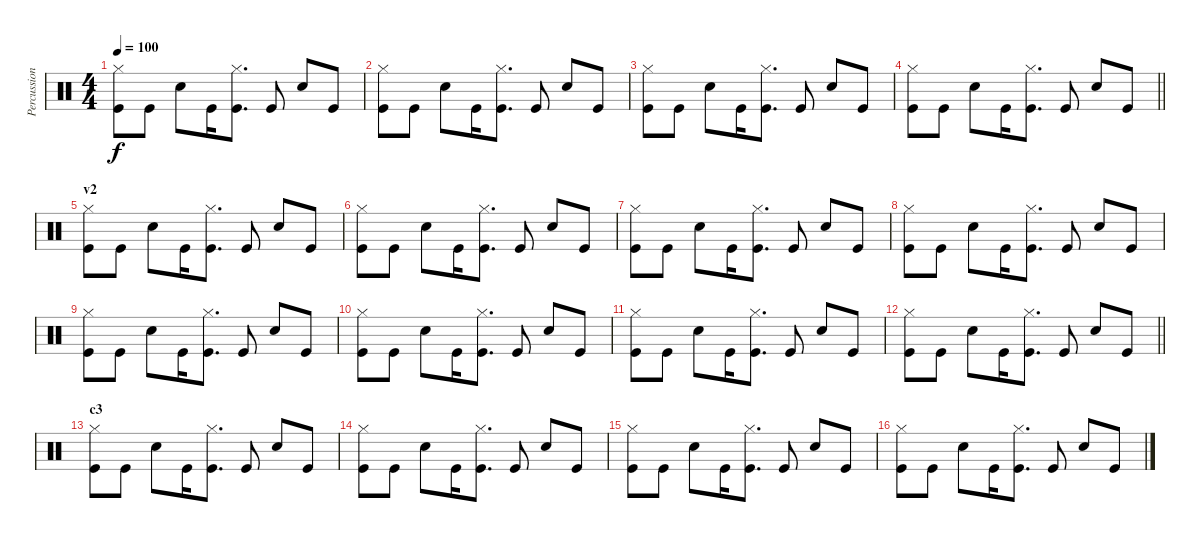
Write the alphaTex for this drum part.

\track ("Percussion" "Percussion") {instrument percussion}
\staff {score}
\articulation defaults
\ts (4 4)
\tempo 100
\clef neutral
\ks c
("Hi-Hat (closed)" "Kick (hit)").8{dy f} "Kick (hit)".8 "Snare (hit) 2".8 "Kick (hit)".16 ("Hi-Hat (closed)" "Kick (hit)").8{d} "Kick (hit)".8 "Snare (hit) 2".8 "Kick (hit)".8 |
("Hi-Hat (closed)" "Kick (hit)").8 "Kick (hit)".8 "Snare (hit) 2".8 "Kick (hit)".16 ("Hi-Hat (closed)" "Kick (hit)").8{d} "Kick (hit)".8 "Snare (hit) 2".8 "Kick (hit)".8 |
("Hi-Hat (closed)" "Kick (hit)").8 "Kick (hit)".8 "Snare (hit) 2".8 "Kick (hit)".16 ("Hi-Hat (closed)" "Kick (hit)").8{d} "Kick (hit)".8 "Snare (hit) 2".8 "Kick (hit)".8 |
\barLineRight lightlight
("Hi-Hat (closed)" "Kick (hit)").8 "Kick (hit)".8 "Snare (hit) 2".8 "Kick (hit)".16 ("Hi-Hat (closed)" "Kick (hit)").8{d} "Kick (hit)".8 "Snare (hit) 2".8 "Kick (hit)".8 |
\section ("" "v2")
("Hi-Hat (closed)" "Kick (hit)").8 "Kick (hit)".8 "Snare (hit) 2".8 "Kick (hit)".16 ("Hi-Hat (closed)" "Kick (hit)").8{d} "Kick (hit)".8 "Snare (hit) 2".8 "Kick (hit)".8 |
("Hi-Hat (closed)" "Kick (hit)").8 "Kick (hit)".8 "Snare (hit) 2".8 "Kick (hit)".16 ("Hi-Hat (closed)" "Kick (hit)").8{d} "Kick (hit)".8 "Snare (hit) 2".8 "Kick (hit)".8 |
("Hi-Hat (closed)" "Kick (hit)").8 "Kick (hit)".8 "Snare (hit) 2".8 "Kick (hit)".16 ("Hi-Hat (closed)" "Kick (hit)").8{d} "Kick (hit)".8 "Snare (hit) 2".8 "Kick (hit)".8 |
("Hi-Hat (closed)" "Kick (hit)").8 "Kick (hit)".8 "Snare (hit) 2".8 "Kick (hit)".16 ("Hi-Hat (closed)" "Kick (hit)").8{d} "Kick (hit)".8 "Snare (hit) 2".8 "Kick (hit)".8 |
("Hi-Hat (closed)" "Kick (hit)").8 "Kick (hit)".8 "Snare (hit) 2".8 "Kick (hit)".16 ("Hi-Hat (closed)" "Kick (hit)").8{d} "Kick (hit)".8 "Snare (hit) 2".8 "Kick (hit)".8 |
("Hi-Hat (closed)" "Kick (hit)").8 "Kick (hit)".8 "Snare (hit) 2".8 "Kick (hit)".16 ("Hi-Hat (closed)" "Kick (hit)").8{d} "Kick (hit)".8 "Snare (hit) 2".8 "Kick (hit)".8 |
("Hi-Hat (closed)" "Kick (hit)").8 "Kick (hit)".8 "Snare (hit) 2".8 "Kick (hit)".16 ("Hi-Hat (closed)" "Kick (hit)").8{d} "Kick (hit)".8 "Snare (hit) 2".8 "Kick (hit)".8 |
\barLineRight lightlight
("Hi-Hat (closed)" "Kick (hit)").8 "Kick (hit)".8 "Snare (hit) 2".8 "Kick (hit)".16 ("Hi-Hat (closed)" "Kick (hit)").8{d} "Kick (hit)".8 "Snare (hit) 2".8 "Kick (hit)".8 |
\section ("" "c3")
("Hi-Hat (closed)" "Kick (hit)").8 "Kick (hit)".8 "Snare (hit) 2".8 "Kick (hit)".16 ("Hi-Hat (closed)" "Kick (hit)").8{d} "Kick (hit)".8 "Snare (hit) 2".8 "Kick (hit)".8 |
("Hi-Hat (closed)" "Kick (hit)").8 "Kick (hit)".8 "Snare (hit) 2".8 "Kick (hit)".16 ("Hi-Hat (closed)" "Kick (hit)").8{d} "Kick (hit)".8 "Snare (hit) 2".8 "Kick (hit)".8 |
("Hi-Hat (closed)" "Kick (hit)").8 "Kick (hit)".8 "Snare (hit) 2".8 "Kick (hit)".16 ("Hi-Hat (closed)" "Kick (hit)").8{d} "Kick (hit)".8 "Snare (hit) 2".8 "Kick (hit)".8 |
("Hi-Hat (closed)" "Kick (hit)").8 "Kick (hit)".8 "Snare (hit) 2".8 "Kick (hit)".16 ("Hi-Hat (closed)" "Kick (hit)").8{d} "Kick (hit)".8 "Snare (hit) 2".8 "Kick (hit)".8
